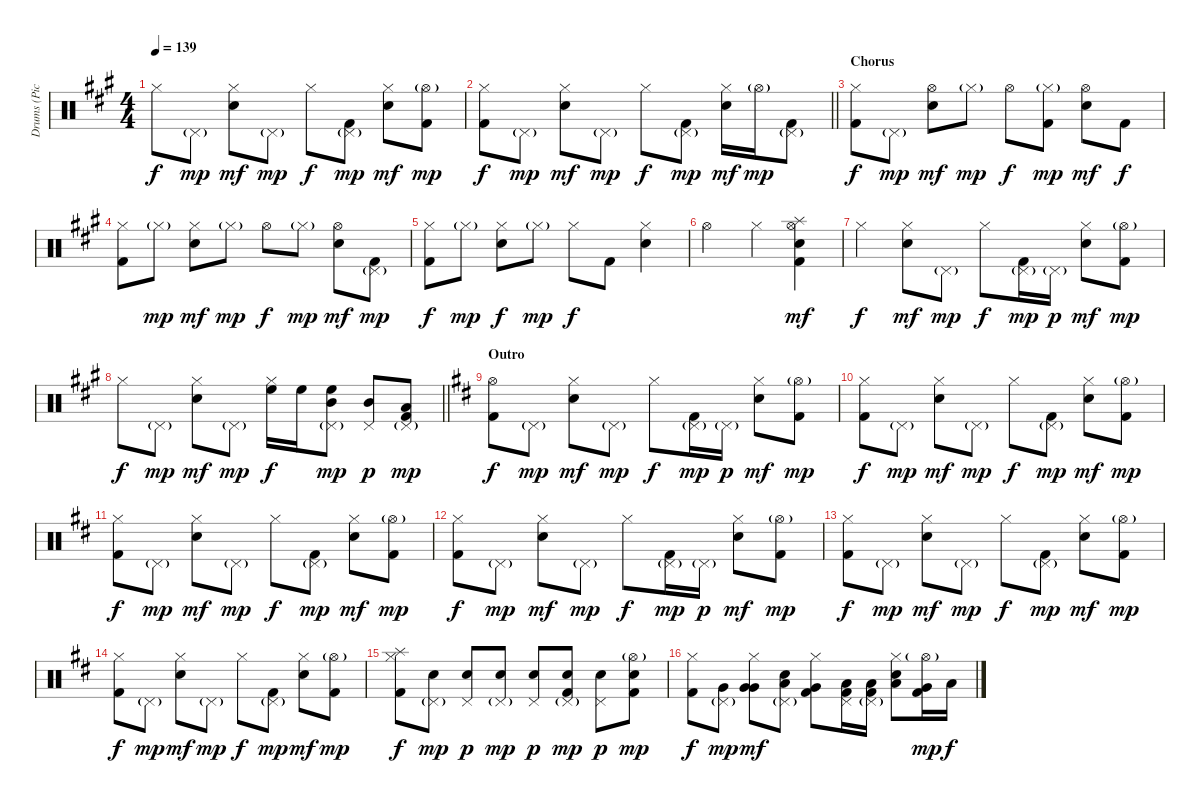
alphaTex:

\track ("Drums (Pick)" "Drums (Pic") {instrument percussion}
\staff {score}
\articulation defaults
\ts (4 4)
\tempo 139
\clef neutral
\ks a "Hi-Hat (closed)".8{dy f} "Pedal Hi-Hat (hit)"{g}.8{dy mp}
("Hi-Hat (closed)" "Snare (hit) 2").8{dy mf} "Pedal Hi-Hat (hit)"{g}.8{dy mp} "Hi-Hat (closed)".8{dy f} ("Kick (hit) 2" "Pedal Hi-Hat (hit)"{g}).8{dy mp} ("Hi-Hat (closed)" "Snare (hit) 2").8{dy mf} ("Kick (hit) 2" "Hi-Hat (open)"{g}).8{dy mp} |
\barLineRight lightlight
("Hi-Hat (closed)" "Kick (hit) 2").8{dy f} "Pedal Hi-Hat (hit)"{g}.8{dy mp} ("Hi-Hat (closed)" "Snare (hit) 2").8{dy mf} "Pedal Hi-Hat (hit)"{g}.8{dy mp} "Hi-Hat (closed)".8{dy f} ("Kick (hit) 2" "Pedal Hi-Hat (hit)"{g}).8{dy mp} ("Hi-Hat (closed)" "Snare (hit) 2").16{dy mf} "Hi-Hat (open)"{g}.16{dy mp} ("Kick (hit) 2" "Pedal Hi-Hat (hit)"{g}).8 |
\section ("" "Chorus")
("Kick (hit) 2" "Hi-Hat (closed)").8{dy f} "Pedal Hi-Hat (hit)"{g}.8{dy mp} ("Hi-Hat (open)" "Snare (hit) 2").8{dy mf} "Hi-Hat (closed)"{g}.8{dy mp} "Hi-Hat (open)".8{dy f} ("Hi-Hat (closed)"{g} "Kick (hit) 2").8{dy mp} ("Hi-Hat (open)" "Snare (hit) 2").8{dy mf} "Kick (hit) 2".8{dy f} |
("Hi-Hat (closed)" "Kick (hit) 2").8 "Hi-Hat (closed)"{g}.8{dy mp} ("Hi-Hat (closed)" "Snare (hit) 2").8{dy mf} "Hi-Hat (closed)"{g}.8{dy mp} "Hi-Hat (open)".8{dy f} "Hi-Hat (closed)"{g}.8{dy mp} ("Snare (hit) 2" "Hi-Hat (open)").8{dy mf} ("Kick (hit) 2" "Pedal Hi-Hat (hit)"{g}).8{dy mp} |
("Hi-Hat (closed)" "Kick (hit) 2").8{dy f} "Hi-Hat (closed)"{g}.8{dy mp} ("Hi-Hat (closed)" "Snare (hit) 2").8{dy f} "Hi-Hat (closed)"{g}.8{dy mp} "Hi-Hat (closed)".8{dy f} "Kick (hit) 2".8 ("Hi-Hat (closed)" "Snare (hit) 2").4 |
"Hi-Hat (open)".2 "Hi-Hat (closed)".4 ("Hi-Hat (open)" "Snare (hit) 2" "Kick (hit) 2" "Splash (hit)").4{dy mf} |
"Hi-Hat (closed)".4{dy f} ("Hi-Hat (closed)" "Snare (hit) 2").8{dy mf} "Pedal Hi-Hat (hit)"{g}.8{dy mp} "Hi-Hat (closed)".8{dy f} ("Kick (hit) 2" "Pedal Hi-Hat (hit)"{g}).16{dy mp} "Pedal Hi-Hat (hit)"{g}.16{dy p} ("Hi-Hat (closed)" "Snare (hit) 2").8{dy mf} ("Kick (hit) 2" "Hi-Hat (open)"{g}).8{dy mp} |
\barLineRight lightlight "Hi-Hat (closed)".8{dy f} "Pedal Hi-Hat (hit)"{g}.8{dy mp}
("Hi-Hat (closed)" "Snare (hit) 2").8{dy mf} "Pedal Hi-Hat (hit)"{g}.8{dy mp} ("Hi-Hat (closed)" "High Floor Tom (hit)").16{dy f} "High Floor Tom (hit)".16 ("Pedal Hi-Hat (hit)"{g} "Mid Tom (hit)" "High Floor Tom (hit)").8{dy mp} ("Mid Tom (hit)" "Pedal Hi-Hat (hit)").8{dy p} ("Pedal Hi-Hat (hit)"{g} "Kick (hit) 2" "Low Tom (hit)").8{dy mp} |
\section ("" "Outro")
\ks d
("Hi-Hat (open)" "Kick (hit) 2").8{dy f} "Pedal Hi-Hat (hit)"{g}.8{dy mp} ("Snare (hit) 2" "Hi-Hat (closed)").8{dy mf} "Pedal Hi-Hat (hit)"{g}.8{dy mp} "Hi-Hat (closed)".8{dy f} ("Kick (hit) 2" "Pedal Hi-Hat (hit)"{g}).16{dy mp} "Pedal Hi-Hat (hit)"{g}.16{dy p} ("Snare (hit) 2" "Hi-Hat (closed)").8{dy mf} ("Kick (hit) 2" "Hi-Hat (open)"{g}).8{dy mp} |
("Kick (hit) 2" "Hi-Hat (closed)").8{dy f} "Pedal Hi-Hat (hit)"{g}.8{dy mp} ("Hi-Hat (closed)" "Snare (hit) 2").8{dy mf} "Pedal Hi-Hat (hit)"{g}.8{dy mp} "Hi-Hat (closed)".8{dy f} ("Pedal Hi-Hat (hit)"{g} "Kick (hit) 2").8{dy mp} ("Snare (hit) 2" "Hi-Hat (closed)").8{dy mf} ("Hi-Hat (open)"{g} "Kick (hit) 2").8{dy mp} |
("Kick (hit) 2" "Hi-Hat (closed)").8{dy f} "Pedal Hi-Hat (hit)"{g}.8{dy mp} ("Hi-Hat (closed)" "Snare (hit) 2").8{dy mf} "Pedal Hi-Hat (hit)"{g}.8{dy mp} "Hi-Hat (closed)".8{dy f} ("Kick (hit) 2" "Pedal Hi-Hat (hit)"{g}).8{dy mp} ("Snare (hit) 2" "Hi-Hat (closed)").8{dy mf} ("Kick (hit) 2" "Hi-Hat (open)"{g}).8{dy mp} |
("Hi-Hat (closed)" "Kick (hit) 2").8{dy f} "Pedal Hi-Hat (hit)"{g}.8{dy mp} ("Snare (hit) 2" "Hi-Hat (closed)").8{dy mf} "Pedal Hi-Hat (hit)"{g}.8{dy mp} "Hi-Hat (closed)".8{dy f} ("Kick (hit) 2" "Pedal Hi-Hat (hit)"{g}).16{dy mp} "Pedal Hi-Hat (hit)"{g}.16{dy p} ("Snare (hit) 2" "Hi-Hat (closed)").8{dy mf} ("Kick (hit) 2" "Hi-Hat (open)"{g}).8{dy mp} |
("Hi-Hat (closed)" "Kick (hit) 2").8{dy f} "Pedal Hi-Hat (hit)"{g}.8{dy mp} ("Hi-Hat (closed)" "Snare (hit) 2").8{dy mf} "Pedal Hi-Hat (hit)"{g}.8{dy mp} "Hi-Hat (closed)".8{dy f} ("Kick (hit) 2" "Pedal Hi-Hat (hit)"{g}).8{dy mp} ("Snare (hit) 2" "Hi-Hat (closed)").8{dy mf} ("Kick (hit) 2" "Hi-Hat (open)"{g}).8{dy mp} |
("Kick (hit) 2" "Hi-Hat (closed)").8{dy f} "Pedal Hi-Hat (hit)"{g}.8{dy mp} ("Hi-Hat (closed)" "Snare (hit) 2").8{dy mf} "Pedal Hi-Hat (hit)"{g}.8{dy mp} "Hi-Hat (closed)".8{dy f} ("Pedal Hi-Hat (hit)"{g} "Kick (hit) 2").8{dy mp} ("Hi-Hat (closed)" "Snare (hit) 2").8{dy mf} ("Hi-Hat (open)"{g} "Kick (hit) 2").8{dy mp} |
("Hi-Hat (closed)" "Splash (hit)" "Kick (hit) 2").8{dy f} ("Pedal Hi-Hat (hit)"{g} "Snare (hit) 2").8{dy mp} ("Snare (hit) 2" "Pedal Hi-Hat (hit)").8{dy p} ("Pedal Hi-Hat (hit)"{g} "Snare (hit) 2").8{dy mp} ("Snare (hit) 2" "Pedal Hi-Hat (hit)").8{dy p} ("Kick (hit) 2" "Pedal Hi-Hat (hit)"{g} "Snare (hit) 2").8{dy mp} ("Snare (hit) 2" "Pedal Hi-Hat (hit)").8{dy p} ("Hi-Hat (open)"{g} "Kick (hit) 2" "Snare (hit) 2").8{dy mp} |
("Hi-Hat (closed)" "Kick (hit) 2").8{dy f} ("Very Low Tom (hit)" "Pedal Hi-Hat (hit)"{g}).8{dy mp} ("Very Low Tom (hit)" "Hi-Hat (closed)" "Very Low Tom (hit)").8{dy mf} ("Snare (hit) 2" "Pedal Hi-Hat (hit)"{g} "Low Floor Tom (hit)").8 ("Kick (hit) 2" "Hi-Hat (closed)" "Very Low Tom (hit)").8 ("Pedal Hi-Hat (hit)" "Low Floor Tom (hit)" "Kick (hit) 2").16 ("Pedal Hi-Hat (hit)"{g} "Low Floor Tom (hit)" "Kick (hit) 2").16 ("Hi-Hat (closed)" "Snare (hit) 2" "Low Floor Tom (hit)").8 ("Hi-Hat (open)"{g} "Kick (hit) 2" "Very Low Tom (hit)").16{dy mp} "Low Floor Tom (hit)".16{dy f}
